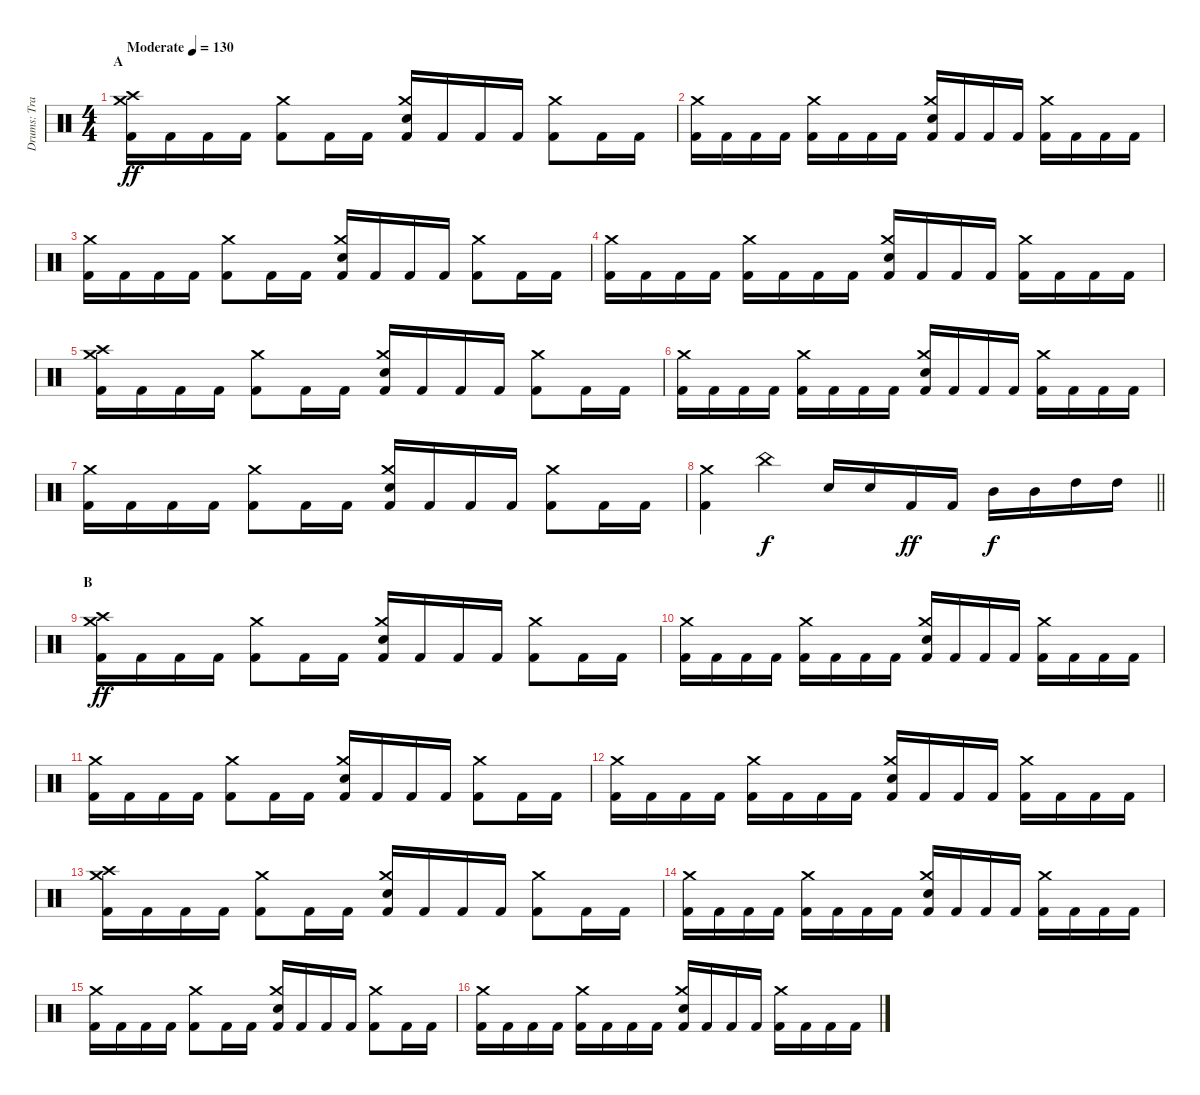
\track ("Drums: Travis Clarke" "Drums: Tra") {instrument percussion}
\staff {score}
\articulation defaults
\ts (4 4)
\section ("" "A")
\tempo (130 "Moderate")
\clef neutral
\ks c
("Kick (hit) 2" "Crash high (hit)" "Crash medium (hit)").16{dy ff} "Kick (hit) 2".16 "Kick (hit) 2".16 "Kick (hit) 2".16 ("Kick (hit) 2" "Crash medium (hit)").8 "Kick (hit) 2".16 "Kick (hit) 2".16 ("Kick (hit) 2" "Snare (hit) 2" "Crash medium (hit)").16 "Kick (hit) 2".16 "Kick (hit) 2".16 "Kick (hit) 2".16 ("Kick (hit) 2" "Crash medium (hit)").8 "Kick (hit) 2".16 "Kick (hit) 2".16 |
("Kick (hit) 2" "Crash medium (hit)").16 "Kick (hit) 2".16 "Kick (hit) 2".16 "Kick (hit) 2".16 ("Kick (hit) 2" "Crash medium (hit)").16 "Kick (hit) 2".16 "Kick (hit) 2".16 "Kick (hit) 2".16 ("Kick (hit) 2" "Snare (hit) 2" "Crash medium (hit)").16 "Kick (hit) 2".16 "Kick (hit) 2".16 "Kick (hit) 2".16 ("Kick (hit) 2" "Crash medium (hit)").16 "Kick (hit) 2".16 "Kick (hit) 2".16 "Kick (hit) 2".16 |
("Kick (hit) 2" "Crash medium (hit)").16 "Kick (hit) 2".16 "Kick (hit) 2".16 "Kick (hit) 2".16 ("Kick (hit) 2" "Crash medium (hit)").8 "Kick (hit) 2".16 "Kick (hit) 2".16 ("Kick (hit) 2" "Snare (hit) 2" "Crash medium (hit)").16 "Kick (hit) 2".16 "Kick (hit) 2".16 "Kick (hit) 2".16 ("Kick (hit) 2" "Crash medium (hit)").8 "Kick (hit) 2".16 "Kick (hit) 2".16 |
("Kick (hit) 2" "Crash medium (hit)").16 "Kick (hit) 2".16 "Kick (hit) 2".16 "Kick (hit) 2".16 ("Kick (hit) 2" "Crash medium (hit)").16 "Kick (hit) 2".16 "Kick (hit) 2".16 "Kick (hit) 2".16 ("Kick (hit) 2" "Snare (hit) 2" "Crash medium (hit)").16 "Kick (hit) 2".16 "Kick (hit) 2".16 "Kick (hit) 2".16 ("Kick (hit) 2" "Crash medium (hit)").16 "Kick (hit) 2".16 "Kick (hit) 2".16 "Kick (hit) 2".16 |
("Kick (hit) 2" "Crash high (hit)" "Crash medium (hit)").16 "Kick (hit) 2".16 "Kick (hit) 2".16 "Kick (hit) 2".16 ("Kick (hit) 2" "Crash medium (hit)").8 "Kick (hit) 2".16 "Kick (hit) 2".16 ("Kick (hit) 2" "Snare (hit) 2" "Crash medium (hit)").16 "Kick (hit) 2".16 "Kick (hit) 2".16 "Kick (hit) 2".16 ("Kick (hit) 2" "Crash medium (hit)").8 "Kick (hit) 2".16 "Kick (hit) 2".16 |
("Kick (hit) 2" "Crash medium (hit)").16 "Kick (hit) 2".16 "Kick (hit) 2".16 "Kick (hit) 2".16 ("Kick (hit) 2" "Crash medium (hit)").16 "Kick (hit) 2".16 "Kick (hit) 2".16 "Kick (hit) 2".16 ("Kick (hit) 2" "Snare (hit) 2" "Crash medium (hit)").16 "Kick (hit) 2".16 "Kick (hit) 2".16 "Kick (hit) 2".16 ("Kick (hit) 2" "Crash medium (hit)").16 "Kick (hit) 2".16 "Kick (hit) 2".16 "Kick (hit) 2".16 |
("Kick (hit) 2" "Crash medium (hit)").16 "Kick (hit) 2".16 "Kick (hit) 2".16 "Kick (hit) 2".16 ("Kick (hit) 2" "Crash medium (hit)").8 "Kick (hit) 2".16 "Kick (hit) 2".16 ("Kick (hit) 2" "Snare (hit) 2" "Crash medium (hit)").16 "Kick (hit) 2".16 "Kick (hit) 2".16 "Kick (hit) 2".16 ("Kick (hit) 2" "Crash medium (hit)").8 "Kick (hit) 2".16 "Kick (hit) 2".16 |
\barLineRight lightlight
("Kick (hit) 2" "Crash medium (hit)").4 "China (hit)".4{dy f} "Snare (hit) 2".16 "Snare (hit) 2".16 "Kick (hit) 2".16{dy ff} "Kick (hit) 2".16 "Mid Tom (hit)".16{dy f} "Mid Tom (hit)".16 "High Tom (hit)".16 "High Tom (hit)".16 |
\section ("" "B")
("Kick (hit) 2" "Crash high (hit)" "Crash medium (hit)").16{dy ff} "Kick (hit) 2".16 "Kick (hit) 2".16 "Kick (hit) 2".16 ("Kick (hit) 2" "Crash medium (hit)").8 "Kick (hit) 2".16 "Kick (hit) 2".16 ("Kick (hit) 2" "Snare (hit) 2" "Crash medium (hit)").16 "Kick (hit) 2".16 "Kick (hit) 2".16 "Kick (hit) 2".16 ("Kick (hit) 2" "Crash medium (hit)").8 "Kick (hit) 2".16 "Kick (hit) 2".16 |
("Kick (hit) 2" "Crash medium (hit)").16 "Kick (hit) 2".16 "Kick (hit) 2".16 "Kick (hit) 2".16 ("Kick (hit) 2" "Crash medium (hit)").16 "Kick (hit) 2".16 "Kick (hit) 2".16 "Kick (hit) 2".16 ("Kick (hit) 2" "Snare (hit) 2" "Crash medium (hit)").16 "Kick (hit) 2".16 "Kick (hit) 2".16 "Kick (hit) 2".16 ("Kick (hit) 2" "Crash medium (hit)").16 "Kick (hit) 2".16 "Kick (hit) 2".16 "Kick (hit) 2".16 |
("Kick (hit) 2" "Crash medium (hit)").16 "Kick (hit) 2".16 "Kick (hit) 2".16 "Kick (hit) 2".16 ("Kick (hit) 2" "Crash medium (hit)").8 "Kick (hit) 2".16 "Kick (hit) 2".16 ("Kick (hit) 2" "Snare (hit) 2" "Crash medium (hit)").16 "Kick (hit) 2".16 "Kick (hit) 2".16 "Kick (hit) 2".16 ("Kick (hit) 2" "Crash medium (hit)").8 "Kick (hit) 2".16 "Kick (hit) 2".16 |
("Kick (hit) 2" "Crash medium (hit)").16 "Kick (hit) 2".16 "Kick (hit) 2".16 "Kick (hit) 2".16 ("Kick (hit) 2" "Crash medium (hit)").16 "Kick (hit) 2".16 "Kick (hit) 2".16 "Kick (hit) 2".16 ("Kick (hit) 2" "Snare (hit) 2" "Crash medium (hit)").16 "Kick (hit) 2".16 "Kick (hit) 2".16 "Kick (hit) 2".16 ("Kick (hit) 2" "Crash medium (hit)").16 "Kick (hit) 2".16 "Kick (hit) 2".16 "Kick (hit) 2".16 |
("Kick (hit) 2" "Crash high (hit)" "Crash medium (hit)").16 "Kick (hit) 2".16 "Kick (hit) 2".16 "Kick (hit) 2".16 ("Kick (hit) 2" "Crash medium (hit)").8 "Kick (hit) 2".16 "Kick (hit) 2".16 ("Kick (hit) 2" "Snare (hit) 2" "Crash medium (hit)").16 "Kick (hit) 2".16 "Kick (hit) 2".16 "Kick (hit) 2".16 ("Kick (hit) 2" "Crash medium (hit)").8 "Kick (hit) 2".16 "Kick (hit) 2".16 |
("Kick (hit) 2" "Crash medium (hit)").16 "Kick (hit) 2".16 "Kick (hit) 2".16 "Kick (hit) 2".16 ("Kick (hit) 2" "Crash medium (hit)").16 "Kick (hit) 2".16 "Kick (hit) 2".16 "Kick (hit) 2".16 ("Kick (hit) 2" "Snare (hit) 2" "Crash medium (hit)").16 "Kick (hit) 2".16 "Kick (hit) 2".16 "Kick (hit) 2".16 ("Kick (hit) 2" "Crash medium (hit)").16 "Kick (hit) 2".16 "Kick (hit) 2".16 "Kick (hit) 2".16 |
("Kick (hit) 2" "Crash medium (hit)").16 "Kick (hit) 2".16 "Kick (hit) 2".16 "Kick (hit) 2".16 ("Kick (hit) 2" "Crash medium (hit)").8 "Kick (hit) 2".16 "Kick (hit) 2".16 ("Kick (hit) 2" "Snare (hit) 2" "Crash medium (hit)").16 "Kick (hit) 2".16 "Kick (hit) 2".16 "Kick (hit) 2".16 ("Kick (hit) 2" "Crash medium (hit)").8 "Kick (hit) 2".16 "Kick (hit) 2".16 |
("Kick (hit) 2" "Crash medium (hit)").16 "Kick (hit) 2".16 "Kick (hit) 2".16 "Kick (hit) 2".16 ("Kick (hit) 2" "Crash medium (hit)").16 "Kick (hit) 2".16 "Kick (hit) 2".16 "Kick (hit) 2".16 ("Kick (hit) 2" "Snare (hit) 2" "Crash medium (hit)").16 "Kick (hit) 2".16 "Kick (hit) 2".16 "Kick (hit) 2".16 ("Kick (hit) 2" "Crash medium (hit)").16 "Kick (hit) 2".16 "Kick (hit) 2".16 "Kick (hit) 2".16
